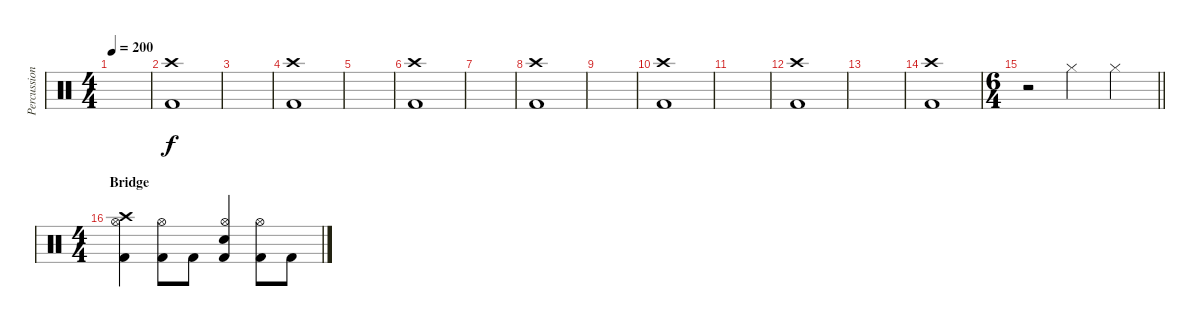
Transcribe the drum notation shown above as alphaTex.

\track ("Percussion" "Percussion") {instrument percussion}
\staff {score}
\articulation defaults
\ts (4 4)
\tempo 200
\clef neutral
\ks c
|
("Crash high (hit)" "Kick (hit) 2").1 |
|
("Crash high (hit)" "Kick (hit) 2").1 |
|
("Crash high (hit)" "Kick (hit) 2").1 |
|
("Crash high (hit)" "Kick (hit) 2").1 |
|
("Crash high (hit)" "Kick (hit) 2").1 |
|
("Crash high (hit)" "Kick (hit) 2").1 |
|
("Crash high (hit)" "Kick (hit) 2").1 |
\ts (6 4)
\barLineRight lightlight
r.2 "Hi-Hat (closed)".2 "Hi-Hat (closed)".2 |
\ts (4 4)
\section ("" "Bridge")
("Crash high (hit)" "Hi-Hat (open)" "Kick (hit) 2").4 ("Hi-Hat (open)" "Kick (hit) 2").8 "Kick (hit) 2".8 ("Hi-Hat (open)" "Snare (hit) 2" "Kick (hit) 2").4 ("Hi-Hat (open)" "Kick (hit) 2").8 "Kick (hit) 2".8
